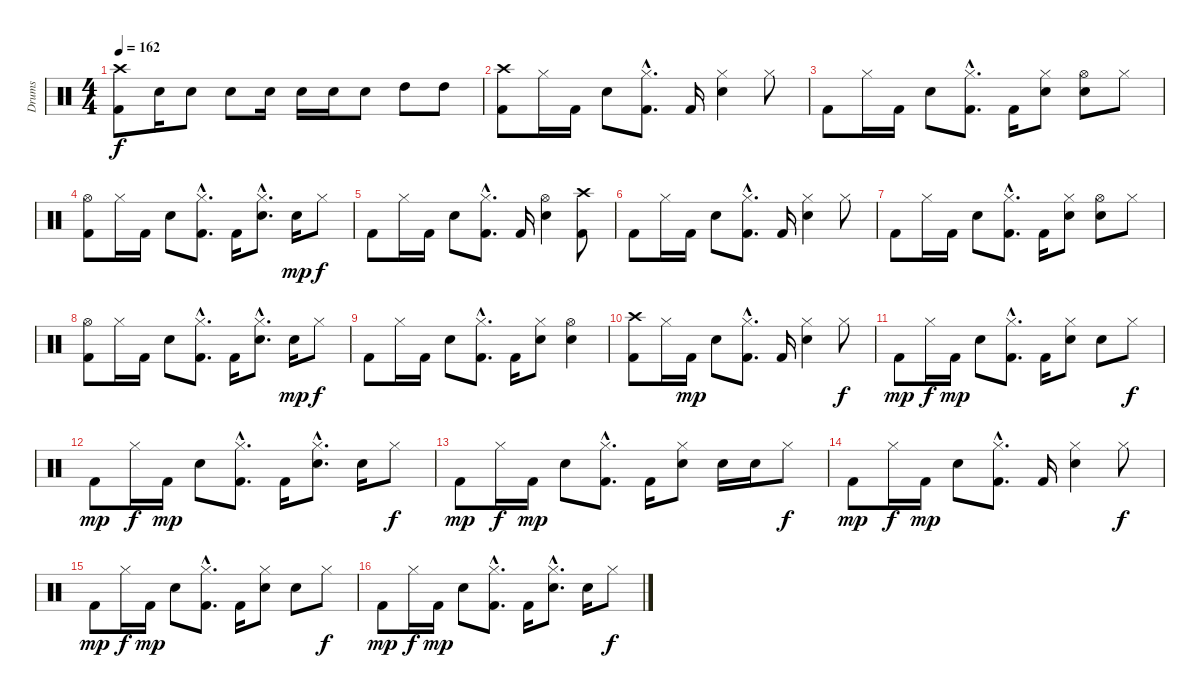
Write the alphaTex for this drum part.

\track ("Drums" "Drums") {instrument percussion}
\staff {score}
\articulation defaults
\ts (4 4)
\tempo 162
\clef neutral
\ks c
("Crash high (hit)" "Kick (hit) 2").8{dy f} "Electric Snare (hit)".16 "Electric Snare (hit)".8 "Electric Snare (hit)".8 "Electric Snare (hit)".16 "Electric Snare (hit)".16 "Electric Snare (hit)".16 "Electric Snare (hit)".8 "High Tom (hit)".8 "High Tom (hit)".8 |
("Crash high (hit)" "Kick (hit) 2").8 "Hi-Hat (closed)".16 "Kick (hit) 2".16 "Electric Snare (hit)".8 ("Hi-Hat (closed)"{hac} "Kick (hit) 2"{hac}).8{d} "Kick (hit) 2".16 ("Hi-Hat (closed)" "Electric Snare (hit)").4 "Hi-Hat (closed)".8 |
"Kick (hit) 2".8 "Hi-Hat (closed)".16 "Kick (hit) 2".16 "Electric Snare (hit)".8 ("Hi-Hat (closed)"{hac} "Kick (hit) 2"{hac}).8{d} "Kick (hit) 2".16 ("Hi-Hat (closed)" "Electric Snare (hit)").8 ("Hi-Hat (open)" "Electric Snare (hit)").8 "Hi-Hat (closed)".8 |
("Hi-Hat (open)" "Kick (hit) 2").8 "Hi-Hat (closed)".16 "Kick (hit) 2".16 "Electric Snare (hit)".8 ("Hi-Hat (closed)"{hac} "Kick (hit) 2"{hac}).8{d} "Kick (hit) 2".16 ("Hi-Hat (closed)"{hac} "Electric Snare (hit)"{hac}).8{d} "Electric Snare (hit)".16{dy mp} "Hi-Hat (closed)".8{dy f} |
"Kick (hit) 2".8 "Hi-Hat (closed)".16 "Kick (hit) 2".16 "Electric Snare (hit)".8 ("Hi-Hat (closed)"{hac} "Kick (hit) 2"{hac}).8{d} "Kick (hit) 2".16 ("Hi-Hat (open)" "Electric Snare (hit)").4 ("Crash high (hit)" "Kick (hit) 2").8 |
"Kick (hit) 2".8 "Hi-Hat (closed)".16 "Kick (hit) 2".16 "Electric Snare (hit)".8 ("Hi-Hat (closed)"{hac} "Kick (hit) 2"{hac}).8{d} "Kick (hit) 2".16 ("Hi-Hat (closed)" "Electric Snare (hit)").4 "Hi-Hat (closed)".8 |
"Kick (hit) 2".8 "Hi-Hat (closed)".16 "Kick (hit) 2".16 "Electric Snare (hit)".8 ("Hi-Hat (closed)"{hac} "Kick (hit) 2"{hac}).8{d} "Kick (hit) 2".16 ("Hi-Hat (closed)" "Electric Snare (hit)").8 ("Hi-Hat (open)" "Electric Snare (hit)").8 "Hi-Hat (closed)".8 |
("Hi-Hat (open)" "Kick (hit) 2").8 "Hi-Hat (closed)".16 "Kick (hit) 2".16 "Electric Snare (hit)".8 ("Hi-Hat (closed)"{hac} "Kick (hit) 2"{hac}).8{d} "Kick (hit) 2".16 ("Hi-Hat (closed)"{hac} "Electric Snare (hit)"{hac}).8{d} "Electric Snare (hit)".16{dy mp} "Hi-Hat (closed)".8{dy f} |
"Kick (hit) 2".8 "Hi-Hat (closed)".16 "Kick (hit) 2".16 "Electric Snare (hit)".8 ("Hi-Hat (closed)"{hac} "Kick (hit) 2"{hac}).8{d} "Kick (hit) 2".16 ("Hi-Hat (closed)" "Electric Snare (hit)").8 ("Hi-Hat (open)" "Electric Snare (hit)").4 |
("Crash high (hit)" "Kick (hit) 2").8 "Hi-Hat (closed)".16 "Kick (hit) 2".16{dy mp} "Electric Snare (hit)".8 ("Hi-Hat (closed)"{hac} "Kick (hit) 2"{hac}).8{d} "Kick (hit) 2".16 ("Hi-Hat (closed)" "Electric Snare (hit)").4 "Hi-Hat (closed)".8{dy f} |
"Kick (hit) 2".8{dy mp} "Hi-Hat (closed)".16{dy f} "Kick (hit) 2".16{dy mp} "Electric Snare (hit)".8 ("Hi-Hat (closed)"{hac} "Kick (hit) 2"{hac}).8{d} "Kick (hit) 2".16 ("Hi-Hat (closed)" "Electric Snare (hit)").8 "Electric Snare (hit)".8 "Hi-Hat (closed)".8{dy f} |
"Kick (hit) 2".8{dy mp} "Hi-Hat (closed)".16{dy f} "Kick (hit) 2".16{dy mp} "Electric Snare (hit)".8 ("Hi-Hat (closed)"{hac} "Kick (hit) 2"{hac}).8{d} "Kick (hit) 2".16 ("Hi-Hat (closed)"{hac} "Electric Snare (hit)"{hac}).8{d} "Electric Snare (hit)".16 "Hi-Hat (closed)".8{dy f} |
"Kick (hit) 2".8{dy mp} "Hi-Hat (closed)".16{dy f} "Kick (hit) 2".16{dy mp} "Electric Snare (hit)".8 ("Hi-Hat (closed)"{hac} "Kick (hit) 2"{hac}).8{d} "Kick (hit) 2".16 ("Hi-Hat (closed)" "Electric Snare (hit)").8 "Electric Snare (hit)".16 "Electric Snare (hit)".16 "Hi-Hat (closed)".8{dy f} |
"Kick (hit) 2".8{dy mp} "Hi-Hat (closed)".16{dy f} "Kick (hit) 2".16{dy mp} "Electric Snare (hit)".8 ("Hi-Hat (closed)"{hac} "Kick (hit) 2"{hac}).8{d} "Kick (hit) 2".16 ("Hi-Hat (closed)" "Electric Snare (hit)").4 "Hi-Hat (closed)".8{dy f} |
"Kick (hit) 2".8{dy mp} "Hi-Hat (closed)".16{dy f} "Kick (hit) 2".16{dy mp} "Electric Snare (hit)".8 ("Hi-Hat (closed)"{hac} "Kick (hit) 2"{hac}).8{d} "Kick (hit) 2".16 ("Hi-Hat (closed)" "Electric Snare (hit)").8 "Electric Snare (hit)".8 "Hi-Hat (closed)".8{dy f} |
"Kick (hit) 2".8{dy mp} "Hi-Hat (closed)".16{dy f} "Kick (hit) 2".16{dy mp} "Electric Snare (hit)".8 ("Hi-Hat (closed)"{hac} "Kick (hit) 2"{hac}).8{d} "Kick (hit) 2".16 ("Hi-Hat (closed)"{hac} "Electric Snare (hit)"{hac}).8{d} "Electric Snare (hit)".16 "Hi-Hat (closed)".8{dy f}
